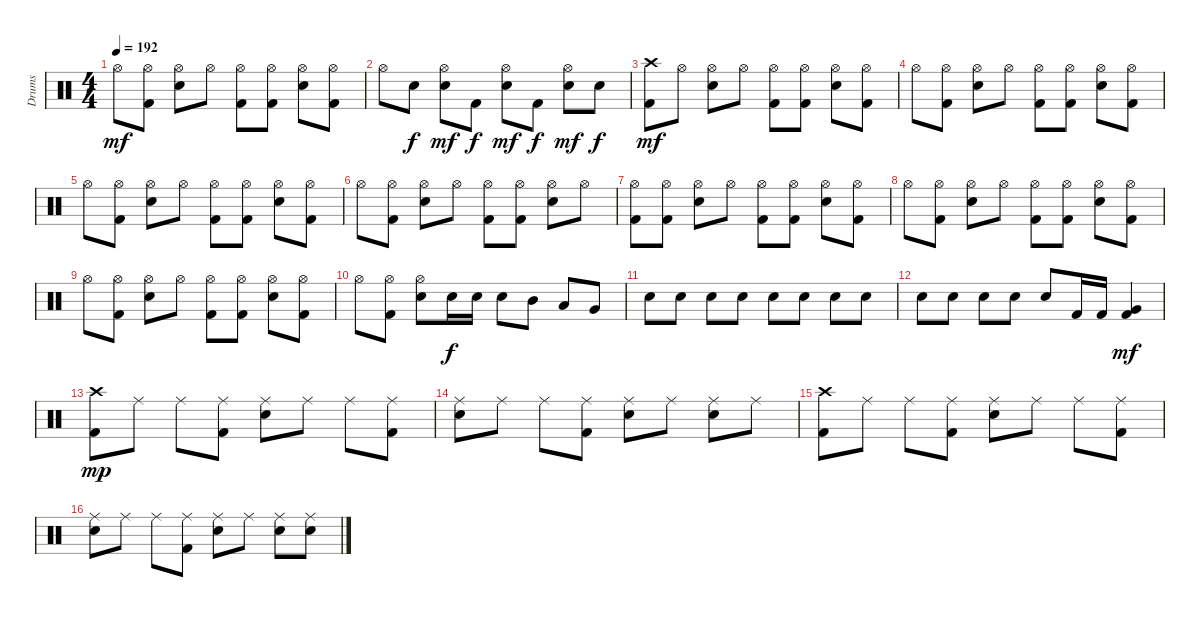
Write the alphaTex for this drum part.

\track ("Drums" "Drums") {instrument percussion}
\staff {score}
\articulation defaults
\ts (4 4)
\tempo 192
\clef neutral
\ks c "Hi-Hat (open)".8{dy mf}
("Hi-Hat (open)" "Kick (hit) 2").8 ("Hi-Hat (open)" "Snare (hit) 2").8 "Hi-Hat (open)".8 ("Hi-Hat (open)" "Kick (hit) 2").8 ("Hi-Hat (open)" "Kick (hit) 2").8 ("Hi-Hat (open)" "Snare (hit) 2").8 ("Hi-Hat (open)" "Kick (hit) 2").8 |
"Hi-Hat (open)".8 "Snare (hit) 2".8{dy f} ("Hi-Hat (open)" "Snare (hit) 2").8{dy mf} "Kick (hit) 2".8{dy f} ("Hi-Hat (open)" "Snare (hit) 2").8{dy mf} "Kick (hit) 2".8{dy f} ("Hi-Hat (open)" "Snare (hit) 2").8{dy mf} "Snare (hit) 2".8{dy f} |
("Crash high (hit)" "Kick (hit) 2").8{dy mf} "Hi-Hat (open)".8 ("Hi-Hat (open)" "Snare (hit) 2").8 "Hi-Hat (open)".8 ("Hi-Hat (open)" "Kick (hit) 2").8 ("Hi-Hat (open)" "Kick (hit) 2").8 ("Hi-Hat (open)" "Snare (hit) 2").8 ("Hi-Hat (open)" "Kick (hit) 2").8 |
"Hi-Hat (open)".8 ("Hi-Hat (open)" "Kick (hit) 2").8 ("Hi-Hat (open)" "Snare (hit) 2").8 "Hi-Hat (open)".8 ("Hi-Hat (open)" "Kick (hit) 2").8 ("Hi-Hat (open)" "Kick (hit) 2").8 ("Hi-Hat (open)" "Snare (hit) 2").8 ("Hi-Hat (open)" "Kick (hit) 2").8 |
"Hi-Hat (open)".8 ("Hi-Hat (open)" "Kick (hit) 2").8 ("Hi-Hat (open)" "Snare (hit) 2").8 "Hi-Hat (open)".8 ("Hi-Hat (open)" "Kick (hit) 2").8 ("Hi-Hat (open)" "Kick (hit) 2").8 ("Hi-Hat (open)" "Snare (hit) 2").8 ("Hi-Hat (open)" "Kick (hit) 2").8 |
"Hi-Hat (open)".8 ("Hi-Hat (open)" "Kick (hit) 2").8 ("Hi-Hat (open)" "Snare (hit) 2").8 "Hi-Hat (open)".8 ("Hi-Hat (open)" "Kick (hit) 2").8 ("Hi-Hat (open)" "Kick (hit) 2").8 ("Hi-Hat (open)" "Snare (hit) 2").8 "Hi-Hat (open)".8 |
("Hi-Hat (open)" "Kick (hit) 2").8 ("Hi-Hat (open)" "Kick (hit) 2").8 ("Hi-Hat (open)" "Snare (hit) 2").8 "Hi-Hat (open)".8 ("Hi-Hat (open)" "Kick (hit) 2").8 ("Hi-Hat (open)" "Kick (hit) 2").8 ("Hi-Hat (open)" "Snare (hit) 2").8 ("Hi-Hat (open)" "Kick (hit) 2").8 |
"Hi-Hat (open)".8 ("Hi-Hat (open)" "Kick (hit) 2").8 ("Hi-Hat (open)" "Snare (hit) 2").8 "Hi-Hat (open)".8 ("Hi-Hat (open)" "Kick (hit) 2").8 ("Hi-Hat (open)" "Kick (hit) 2").8 ("Hi-Hat (open)" "Snare (hit) 2").8 ("Hi-Hat (open)" "Kick (hit) 2").8 |
"Hi-Hat (open)".8 ("Hi-Hat (open)" "Kick (hit) 2").8 ("Hi-Hat (open)" "Snare (hit) 2").8 "Hi-Hat (open)".8 ("Hi-Hat (open)" "Kick (hit) 2").8 ("Hi-Hat (open)" "Kick (hit) 2").8 ("Hi-Hat (open)" "Snare (hit) 2").8 ("Hi-Hat (open)" "Kick (hit) 2").8 |
"Hi-Hat (open)".8 ("Hi-Hat (open)" "Kick (hit) 2").8 ("Hi-Hat (open)" "Snare (hit) 2").8 "Snare (hit) 2".16{dy f} "Snare (hit) 2".16 "Snare (hit) 2".8 "Mid Tom (hit)".8 "Low Tom (hit)".8 "Very Low Tom (hit)".8 |
"Snare (hit) 2".8 "Snare (hit) 2".8 "Snare (hit) 2".8 "Snare (hit) 2".8 "Snare (hit) 2".8 "Snare (hit) 2".8 "Snare (hit) 2".8 "Snare (hit) 2".8 |
"Snare (hit) 2".8 "Snare (hit) 2".8 "Snare (hit) 2".8 "Snare (hit) 2".8 "Snare (hit) 2".8 "Kick (hit) 2".16 "Kick (hit) 2".16 ("Kick (hit) 2" "Very Low Tom (hit)").4{dy mf} |
("Crash high (hit)" "Kick (hit) 2").8{dy mp} "Ride (middle)".8 "Ride (middle)".8 ("Ride (middle)" "Kick (hit) 2").8 ("Ride (middle)" "Snare (hit) 2").8 "Ride (middle)".8 "Ride (middle)".8 ("Ride (middle)" "Kick (hit) 2").8 |
("Ride (middle)" "Snare (hit) 2").8 "Ride (middle)".8 "Ride (middle)".8 ("Ride (middle)" "Kick (hit) 2").8 ("Ride (middle)" "Snare (hit) 2").8 "Ride (middle)".8 ("Ride (middle)" "Snare (hit) 2").8 "Ride (middle)".8 |
("Crash high (hit)" "Kick (hit) 2").8 "Ride (middle)".8 "Ride (middle)".8 ("Ride (middle)" "Kick (hit) 2").8 ("Ride (middle)" "Snare (hit) 2").8 "Ride (middle)".8 "Ride (middle)".8 ("Ride (middle)" "Kick (hit) 2").8 |
("Ride (middle)" "Snare (hit) 2").8 "Ride (middle)".8 "Ride (middle)".8 ("Ride (middle)" "Kick (hit) 2").8 ("Ride (middle)" "Snare (hit) 2").8 "Ride (middle)".8 ("Ride (middle)" "Snare (hit) 2").8 ("Ride (middle)" "Snare (hit) 2").8
